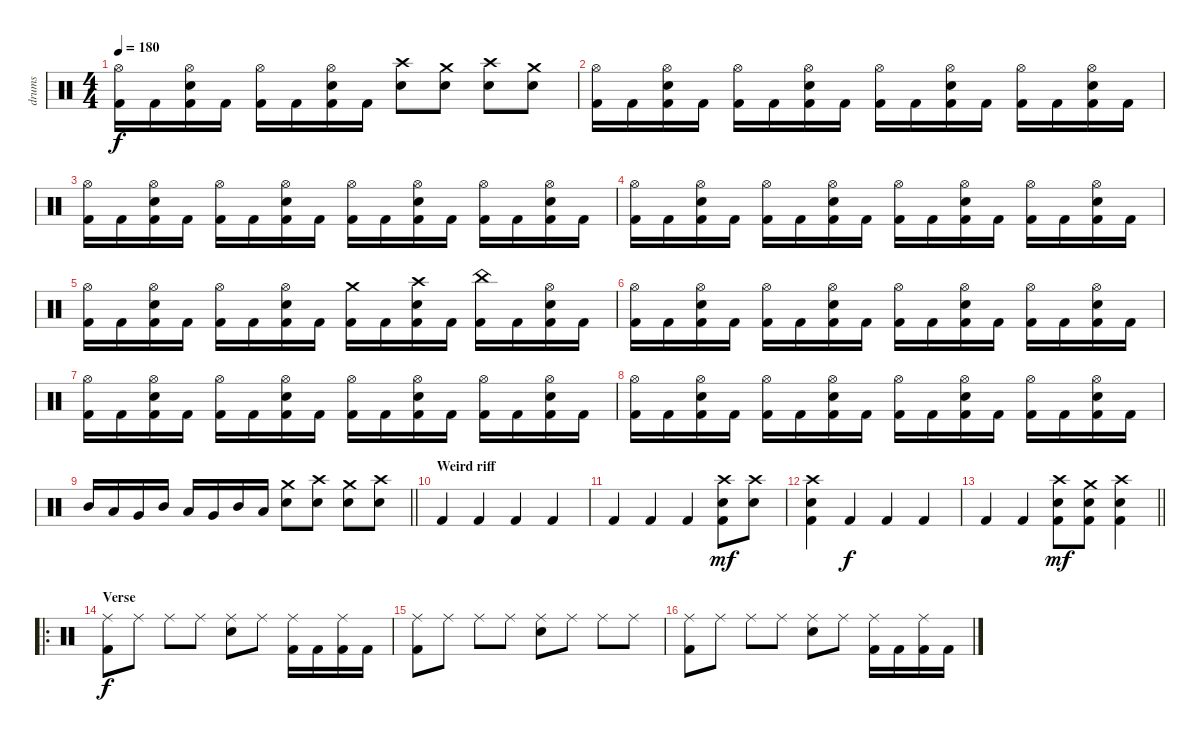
\track ("drums" "drums") {instrument percussion}
\staff {score}
\articulation defaults
\ts (4 4)
\tempo 180
\clef neutral
\ks c
("Hi-Hat (open)" "Kick (hit) 2").16{dy f} "Kick (hit) 2".16 ("Hi-Hat (open)" "Snare (hit) 2" "Kick (hit) 2").16 "Kick (hit) 2".16 ("Hi-Hat (open)" "Kick (hit) 2").16 "Kick (hit) 2".16 ("Hi-Hat (open)" "Snare (hit) 2" "Kick (hit) 2").16 "Kick (hit) 2".16 ("Crash high (hit)" "Snare (hit) 2").8 ("Crash medium (hit)" "Snare (hit) 2").8 ("Crash high (hit)" "Snare (hit) 2").8 ("Crash medium (hit)" "Snare (hit) 2").8 |
("Hi-Hat (open)" "Kick (hit) 2").16 "Kick (hit) 2".16 ("Hi-Hat (open)" "Snare (hit) 2" "Kick (hit) 2").16 "Kick (hit) 2".16 ("Hi-Hat (open)" "Kick (hit) 2").16 "Kick (hit) 2".16 ("Hi-Hat (open)" "Snare (hit) 2" "Kick (hit) 2").16 "Kick (hit) 2".16 ("Hi-Hat (open)" "Kick (hit) 2").16 "Kick (hit) 2".16 ("Hi-Hat (open)" "Snare (hit) 2" "Kick (hit) 2").16 "Kick (hit) 2".16 ("Hi-Hat (open)" "Kick (hit) 2").16 "Kick (hit) 2".16 ("Hi-Hat (open)" "Snare (hit) 2" "Kick (hit) 2").16 "Kick (hit) 2".16 |
("Hi-Hat (open)" "Kick (hit) 2").16 "Kick (hit) 2".16 ("Hi-Hat (open)" "Snare (hit) 2" "Kick (hit) 2").16 "Kick (hit) 2".16 ("Hi-Hat (open)" "Kick (hit) 2").16 "Kick (hit) 2".16 ("Hi-Hat (open)" "Snare (hit) 2" "Kick (hit) 2").16 "Kick (hit) 2".16 ("Hi-Hat (open)" "Kick (hit) 2").16 "Kick (hit) 2".16 ("Hi-Hat (open)" "Snare (hit) 2" "Kick (hit) 2").16 "Kick (hit) 2".16 ("Hi-Hat (open)" "Kick (hit) 2").16 "Kick (hit) 2".16 ("Hi-Hat (open)" "Snare (hit) 2" "Kick (hit) 2").16 "Kick (hit) 2".16 |
("Hi-Hat (open)" "Kick (hit) 2").16 "Kick (hit) 2".16 ("Hi-Hat (open)" "Snare (hit) 2" "Kick (hit) 2").16 "Kick (hit) 2".16 ("Hi-Hat (open)" "Kick (hit) 2").16 "Kick (hit) 2".16 ("Hi-Hat (open)" "Snare (hit) 2" "Kick (hit) 2").16 "Kick (hit) 2".16 ("Hi-Hat (open)" "Kick (hit) 2").16 "Kick (hit) 2".16 ("Hi-Hat (open)" "Snare (hit) 2" "Kick (hit) 2").16 "Kick (hit) 2".16 ("Hi-Hat (open)" "Kick (hit) 2").16 "Kick (hit) 2".16 ("Hi-Hat (open)" "Snare (hit) 2" "Kick (hit) 2").16 "Kick (hit) 2".16 |
("Hi-Hat (open)" "Kick (hit) 2").16 "Kick (hit) 2".16 ("Hi-Hat (open)" "Snare (hit) 2" "Kick (hit) 2").16 "Kick (hit) 2".16 ("Hi-Hat (open)" "Kick (hit) 2").16 "Kick (hit) 2".16 ("Hi-Hat (open)" "Snare (hit) 2" "Kick (hit) 2").16 "Kick (hit) 2".16 ("Crash medium (hit)" "Kick (hit) 2").16 "Kick (hit) 2".16 ("Crash high (hit)" "Snare (hit) 2" "Kick (hit) 2").16 "Kick (hit) 2".16 ("China (hit)" "Kick (hit) 2").16 "Kick (hit) 2".16 ("Hi-Hat (open)" "Snare (hit) 2" "Kick (hit) 2").16 "Kick (hit) 2".16 |
("Hi-Hat (open)" "Kick (hit) 2").16 "Kick (hit) 2".16 ("Hi-Hat (open)" "Snare (hit) 2" "Kick (hit) 2").16 "Kick (hit) 2".16 ("Hi-Hat (open)" "Kick (hit) 2").16 "Kick (hit) 2".16 ("Hi-Hat (open)" "Snare (hit) 2" "Kick (hit) 2").16 "Kick (hit) 2".16 ("Hi-Hat (open)" "Kick (hit) 2").16 "Kick (hit) 2".16 ("Hi-Hat (open)" "Snare (hit) 2" "Kick (hit) 2").16 "Kick (hit) 2".16 ("Hi-Hat (open)" "Kick (hit) 2").16 "Kick (hit) 2".16 ("Hi-Hat (open)" "Snare (hit) 2" "Kick (hit) 2").16 "Kick (hit) 2".16 |
("Hi-Hat (open)" "Kick (hit) 2").16 "Kick (hit) 2".16 ("Hi-Hat (open)" "Snare (hit) 2" "Kick (hit) 2").16 "Kick (hit) 2".16 ("Hi-Hat (open)" "Kick (hit) 2").16 "Kick (hit) 2".16 ("Hi-Hat (open)" "Snare (hit) 2" "Kick (hit) 2").16 "Kick (hit) 2".16 ("Hi-Hat (open)" "Kick (hit) 2").16 "Kick (hit) 2".16 ("Hi-Hat (open)" "Snare (hit) 2" "Kick (hit) 2").16 "Kick (hit) 2".16 ("Hi-Hat (open)" "Kick (hit) 2").16 "Kick (hit) 2".16 ("Hi-Hat (open)" "Snare (hit) 2" "Kick (hit) 2").16 "Kick (hit) 2".16 |
("Hi-Hat (open)" "Kick (hit) 2").16 "Kick (hit) 2".16 ("Hi-Hat (open)" "Snare (hit) 2" "Kick (hit) 2").16 "Kick (hit) 2".16 ("Hi-Hat (open)" "Kick (hit) 2").16 "Kick (hit) 2".16 ("Hi-Hat (open)" "Snare (hit) 2" "Kick (hit) 2").16 "Kick (hit) 2".16 ("Hi-Hat (open)" "Kick (hit) 2").16 "Kick (hit) 2".16 ("Hi-Hat (open)" "Snare (hit) 2" "Kick (hit) 2").16 "Kick (hit) 2".16 ("Hi-Hat (open)" "Kick (hit) 2").16 "Kick (hit) 2".16 ("Hi-Hat (open)" "Snare (hit) 2" "Kick (hit) 2").16 "Kick (hit) 2".16 |
\barLineRight lightlight "Mid Tom (hit)".16 "Low Tom (hit)".16 "Very Low Tom (hit)".16 "Mid Tom (hit)".16 "Low Tom (hit)".16 "Very Low Tom (hit)".16 "Mid Tom (hit)".16 "Low Tom (hit)".16
("Crash medium (hit)" "Snare (hit) 2").8 ("Crash high (hit)" "Snare (hit) 2").8 ("Crash medium (hit)" "Snare (hit) 2").8 ("Crash high (hit)" "Snare (hit) 2").8 |
\section ("" "Weird riff")
"Kick (hit) 2".4 "Kick (hit) 2".4 "Kick (hit) 2".4 "Kick (hit) 2".4 |
"Kick (hit) 2".4 "Kick (hit) 2".4 "Kick (hit) 2".4 ("Crash high (hit)" "Snare (hit) 2" "Kick (hit) 2").8{dy mf} ("Crash high (hit)" "Snare (hit) 2").8 |
("Crash high (hit)" "Snare (hit) 2" "Kick (hit) 2").4 "Kick (hit) 2".4{dy f} "Kick (hit) 2".4 "Kick (hit) 2".4 |
\barLineRight lightlight "Kick (hit) 2".4 "Kick (hit) 2".4
("Crash high (hit)" "Snare (hit) 2" "Kick (hit) 2").8{dy mf} ("Crash medium (hit)" "Snare (hit) 2" "Kick (hit) 2").8 ("Crash high (hit)" "Snare (hit) 2" "Kick (hit) 2").4 |
\ro
\section ("" "Verse")
("Ride (middle)" "Kick (hit) 2").8{dy f} "Ride (middle)".8 "Ride (middle)".8 "Ride (middle)".8 ("Ride (middle)" "Snare (hit) 2").8 "Ride (middle)".8 ("Ride (middle)" "Kick (hit) 2").16 "Kick (hit) 2".16 ("Ride (middle)" "Kick (hit) 2").16 "Kick (hit) 2".16 |
("Ride (middle)" "Kick (hit) 2").8 "Ride (middle)".8 "Ride (middle)".8 "Ride (middle)".8 ("Ride (middle)" "Snare (hit) 2").8 "Ride (middle)".8 "Ride (middle)".8 "Ride (middle)".8 |
("Ride (middle)" "Kick (hit) 2").8 "Ride (middle)".8 "Ride (middle)".8 "Ride (middle)".8 ("Ride (middle)" "Snare (hit) 2").8 "Ride (middle)".8 ("Ride (middle)" "Kick (hit) 2").16 "Kick (hit) 2".16 ("Ride (middle)" "Kick (hit) 2").16 "Kick (hit) 2".16
